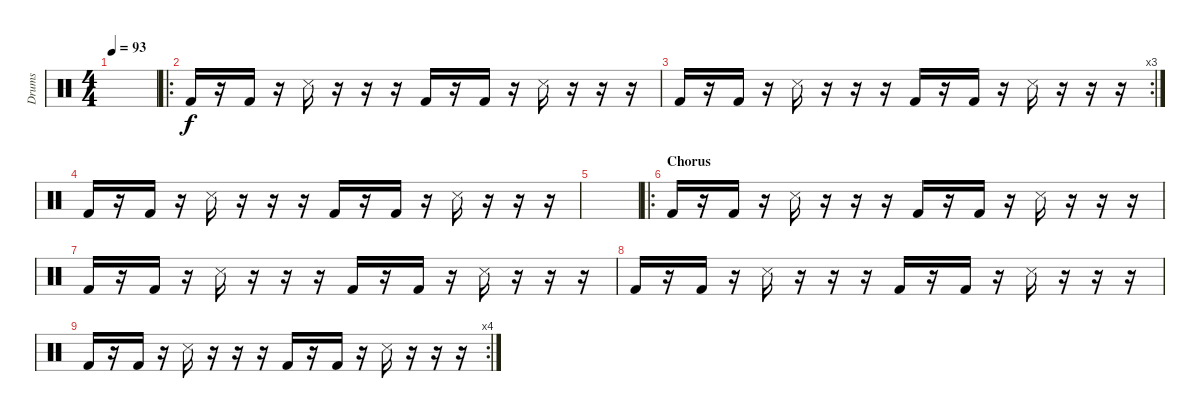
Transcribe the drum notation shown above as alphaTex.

\track ("Drums" "Drums") {instrument percussion}
\staff {score}
\articulation defaults
\ts (4 4)
\tempo 93
\clef neutral
\ks c
|
\ro "Kick (hit) 2".16
r.16 "Kick (hit) 2".16 r.16 "Metronome (hit)".16 r.16 r.16 r.16 "Kick (hit) 2".16 r.16 "Kick (hit) 2".16 r.16 "Metronome (hit)".16 r.16 r.16 r.16 |
\rc 3 "Kick (hit) 2".16
r.16 "Kick (hit) 2".16 r.16 "Metronome (hit)".16 r.16 r.16 r.16 "Kick (hit) 2".16 r.16 "Kick (hit) 2".16 r.16 "Metronome (hit)".16 r.16 r.16 r.16 |
"Kick (hit) 2".16 r.16 "Kick (hit) 2".16 r.16 "Metronome (hit)".16 r.16 r.16 r.16 "Kick (hit) 2".16 r.16 "Kick (hit) 2".16 r.16 "Metronome (hit)".16 r.16 r.16 r.16 |
|
\ro
\section ("" "Chorus")
"Kick (hit) 2".16 r.16 "Kick (hit) 2".16 r.16 "Metronome (hit)".16 r.16 r.16 r.16 "Kick (hit) 2".16 r.16 "Kick (hit) 2".16 r.16 "Metronome (hit)".16 r.16 r.16 r.16 |
"Kick (hit) 2".16 r.16 "Kick (hit) 2".16 r.16 "Metronome (hit)".16 r.16 r.16 r.16 "Kick (hit) 2".16 r.16 "Kick (hit) 2".16 r.16 "Metronome (hit)".16 r.16 r.16 r.16 |
"Kick (hit) 2".16 r.16 "Kick (hit) 2".16 r.16 "Metronome (hit)".16 r.16 r.16 r.16 "Kick (hit) 2".16 r.16 "Kick (hit) 2".16 r.16 "Metronome (hit)".16 r.16 r.16 r.16 |
\rc 4 "Kick (hit) 2".16
r.16 "Kick (hit) 2".16 r.16 "Metronome (hit)".16 r.16 r.16 r.16 "Kick (hit) 2".16 r.16 "Kick (hit) 2".16 r.16 "Metronome (hit)".16 r.16 r.16 r.16
